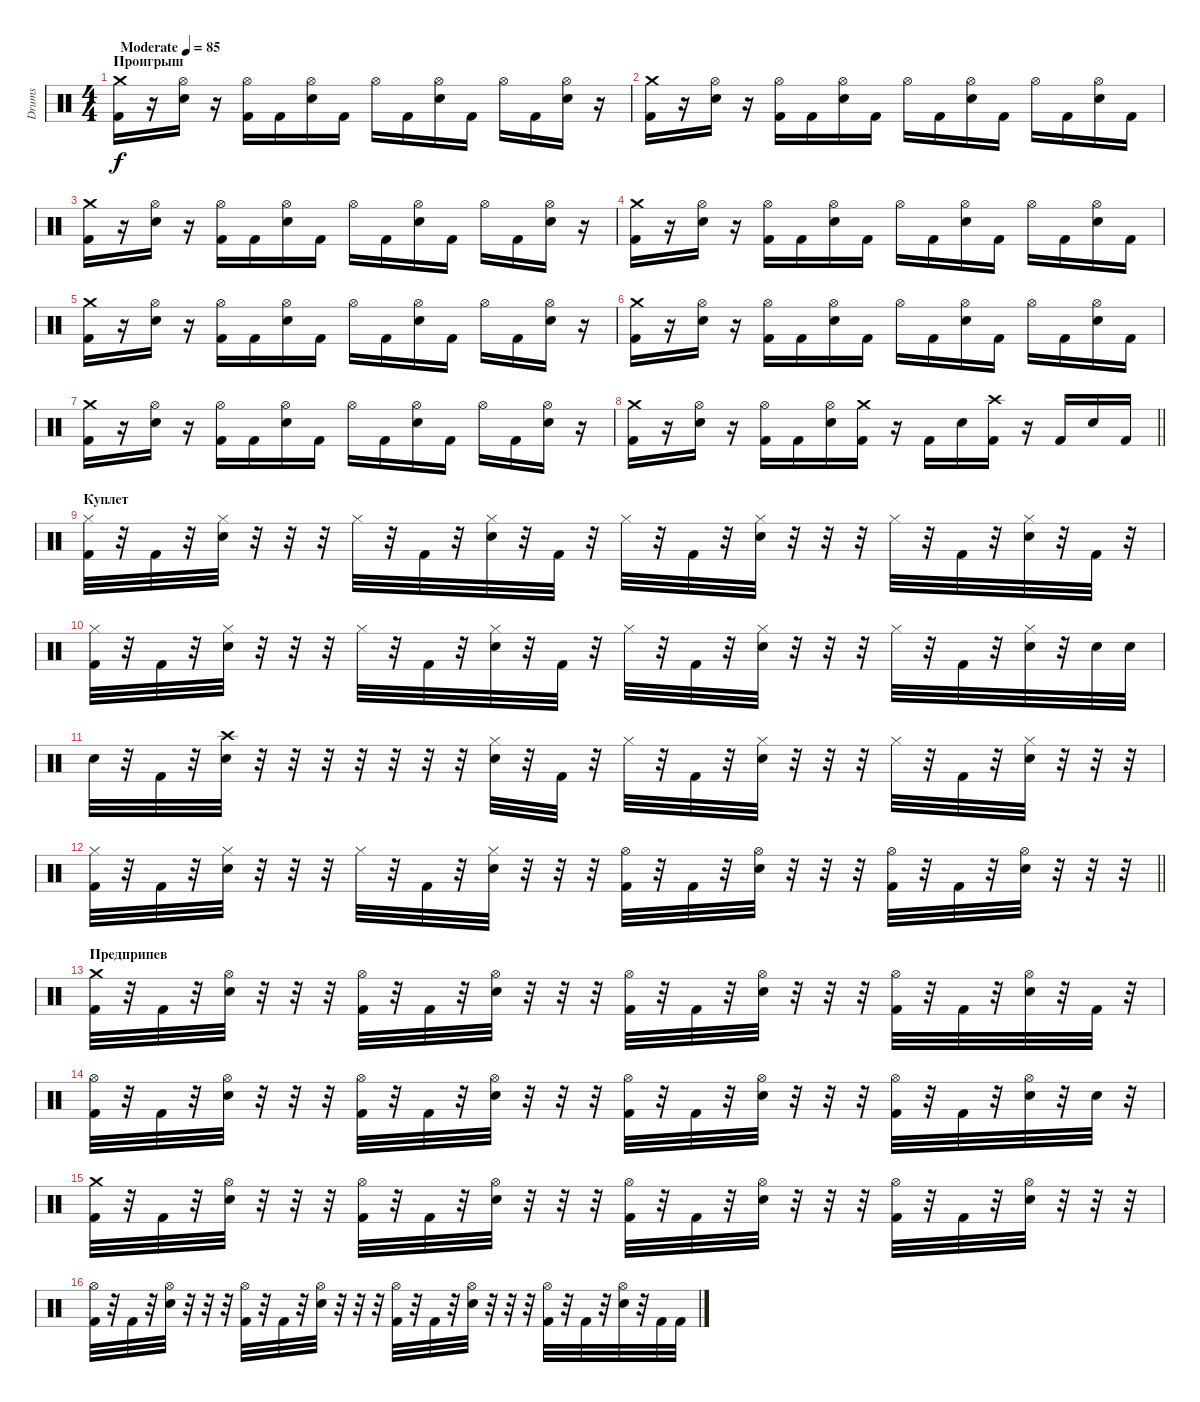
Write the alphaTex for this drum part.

\track ("Drums" "Drums") {instrument percussion}
\staff {score}
\articulation defaults
\ts (4 4)
\section ("" "Проигрыш")
\tempo (85 "Moderate")
\clef neutral
\ks c
("Crash medium (hit)" "Kick (hit) 2").16{dy f} r.16 ("Hi-Hat (open)" "Electric Snare (hit)").16 r.16 ("Hi-Hat (open)" "Kick (hit) 2").16 "Kick (hit) 2".16 ("Hi-Hat (open)" "Electric Snare (hit)").16 "Kick (hit) 2".16 "Hi-Hat (open)".16 "Kick (hit) 2".16 ("Hi-Hat (open)" "Electric Snare (hit)").16 "Kick (hit) 2".16 "Hi-Hat (open)".16 "Kick (hit) 2".16 ("Hi-Hat (open)" "Electric Snare (hit)").16 r.16 |
("Crash medium (hit)" "Kick (hit) 2").16 r.16 ("Hi-Hat (open)" "Electric Snare (hit)").16 r.16 ("Hi-Hat (open)" "Kick (hit) 2").16 "Kick (hit) 2".16 ("Hi-Hat (open)" "Electric Snare (hit)").16 "Kick (hit) 2".16 "Hi-Hat (open)".16 "Kick (hit) 2".16 ("Hi-Hat (open)" "Electric Snare (hit)").16 "Kick (hit) 2".16 "Hi-Hat (open)".16 "Kick (hit) 2".16 ("Hi-Hat (open)" "Electric Snare (hit)").16 "Kick (hit) 2".16 |
("Crash medium (hit)" "Kick (hit) 2").16 r.16 ("Hi-Hat (open)" "Electric Snare (hit)").16 r.16 ("Hi-Hat (open)" "Kick (hit) 2").16 "Kick (hit) 2".16 ("Hi-Hat (open)" "Electric Snare (hit)").16 "Kick (hit) 2".16 "Hi-Hat (open)".16 "Kick (hit) 2".16 ("Hi-Hat (open)" "Electric Snare (hit)").16 "Kick (hit) 2".16 "Hi-Hat (open)".16 "Kick (hit) 2".16 ("Hi-Hat (open)" "Electric Snare (hit)").16 r.16 |
("Crash medium (hit)" "Kick (hit) 2").16 r.16 ("Hi-Hat (open)" "Electric Snare (hit)").16 r.16 ("Hi-Hat (open)" "Kick (hit) 2").16 "Kick (hit) 2".16 ("Hi-Hat (open)" "Electric Snare (hit)").16 "Kick (hit) 2".16 "Hi-Hat (open)".16 "Kick (hit) 2".16 ("Hi-Hat (open)" "Electric Snare (hit)").16 "Kick (hit) 2".16 "Hi-Hat (open)".16 "Kick (hit) 2".16 ("Hi-Hat (open)" "Electric Snare (hit)").16 "Kick (hit) 2".16 |
("Crash medium (hit)" "Kick (hit) 2").16 r.16 ("Hi-Hat (open)" "Electric Snare (hit)").16 r.16 ("Hi-Hat (open)" "Kick (hit) 2").16 "Kick (hit) 2".16 ("Hi-Hat (open)" "Electric Snare (hit)").16 "Kick (hit) 2".16 "Hi-Hat (open)".16 "Kick (hit) 2".16 ("Hi-Hat (open)" "Electric Snare (hit)").16 "Kick (hit) 2".16 "Hi-Hat (open)".16 "Kick (hit) 2".16 ("Hi-Hat (open)" "Electric Snare (hit)").16 r.16 |
("Crash medium (hit)" "Kick (hit) 2").16 r.16 ("Hi-Hat (open)" "Electric Snare (hit)").16 r.16 ("Hi-Hat (open)" "Kick (hit) 2").16 "Kick (hit) 2".16 ("Hi-Hat (open)" "Electric Snare (hit)").16 "Kick (hit) 2".16 "Hi-Hat (open)".16 "Kick (hit) 2".16 ("Hi-Hat (open)" "Electric Snare (hit)").16 "Kick (hit) 2".16 "Hi-Hat (open)".16 "Kick (hit) 2".16 ("Hi-Hat (open)" "Electric Snare (hit)").16 "Kick (hit) 2".16 |
("Crash medium (hit)" "Kick (hit) 2").16 r.16 ("Hi-Hat (open)" "Electric Snare (hit)").16 r.16 ("Hi-Hat (open)" "Kick (hit) 2").16 "Kick (hit) 2".16 ("Hi-Hat (open)" "Electric Snare (hit)").16 "Kick (hit) 2".16 "Hi-Hat (open)".16 "Kick (hit) 2".16 ("Hi-Hat (open)" "Electric Snare (hit)").16 "Kick (hit) 2".16 "Hi-Hat (open)".16 "Kick (hit) 2".16 ("Hi-Hat (open)" "Electric Snare (hit)").16 r.16 |
\barLineRight lightlight
("Crash medium (hit)" "Kick (hit) 2").16 r.16 ("Hi-Hat (open)" "Electric Snare (hit)").16 r.16 ("Hi-Hat (open)" "Kick (hit) 2").16 "Kick (hit) 2".16 ("Hi-Hat (open)" "Electric Snare (hit)").16 ("Crash medium (hit)" "Kick (hit) 2").16 r.16 "Kick (hit) 2".16 "Electric Snare (hit)".16 ("Crash high (hit)" "Kick (hit) 2").16 r.16 "Kick (hit) 2".16 "Electric Snare (hit)".16 "Kick (hit) 2".16 |
\section ("" "Куплет")
("Hi-Hat (closed)" "Kick (hit) 2").32 r.32 "Kick (hit) 2".32 r.32 ("Hi-Hat (closed)" "Electric Snare (hit)").32 r.32 r.32 r.32 "Hi-Hat (closed)".32 r.32 "Kick (hit) 2".32 r.32 ("Hi-Hat (closed)" "Electric Snare (hit)").32 r.32 "Kick (hit) 2".32 r.32 "Hi-Hat (closed)".32 r.32 "Kick (hit) 2".32 r.32 ("Hi-Hat (closed)" "Electric Snare (hit)").32 r.32 r.32 r.32 "Hi-Hat (closed)".32 r.32 "Kick (hit) 2".32 r.32 ("Hi-Hat (closed)" "Electric Snare (hit)").32 r.32 "Kick (hit) 2".32 r.32 |
("Hi-Hat (closed)" "Kick (hit) 2").32 r.32 "Kick (hit) 2".32 r.32 ("Hi-Hat (closed)" "Electric Snare (hit)").32 r.32 r.32 r.32 "Hi-Hat (closed)".32 r.32 "Kick (hit) 2".32 r.32 ("Hi-Hat (closed)" "Electric Snare (hit)").32 r.32 "Kick (hit) 2".32 r.32 "Hi-Hat (closed)".32 r.32 "Kick (hit) 2".32 r.32 ("Hi-Hat (closed)" "Electric Snare (hit)").32 r.32 r.32 r.32 "Hi-Hat (closed)".32 r.32 "Kick (hit) 2".32 r.32 ("Hi-Hat (closed)" "Electric Snare (hit)").32 r.32 "Electric Snare (hit)".32 "Electric Snare (hit)".32 |
"Electric Snare (hit)".32 r.32 "Kick (hit) 2".32 r.32 ("Crash high (hit)" "Electric Snare (hit)").32 r.32 r.32 r.32 r.32 r.32 r.32 r.32 ("Hi-Hat (closed)" "Electric Snare (hit)").32 r.32 "Kick (hit) 2".32 r.32 "Hi-Hat (closed)".32 r.32 "Kick (hit) 2".32 r.32 ("Hi-Hat (closed)" "Electric Snare (hit)").32 r.32 r.32 r.32 "Hi-Hat (closed)".32 r.32 "Kick (hit) 2".32 r.32 ("Hi-Hat (closed)" "Electric Snare (hit)").32 r.32 r.32 r.32 |
\barLineRight lightlight
("Hi-Hat (closed)" "Kick (hit) 2").32 r.32 "Kick (hit) 2".32 r.32 ("Hi-Hat (closed)" "Electric Snare (hit)").32 r.32 r.32 r.32 "Hi-Hat (closed)".32 r.32 "Kick (hit) 2".32 r.32 ("Hi-Hat (closed)" "Electric Snare (hit)").32 r.32 r.32 r.32 ("Hi-Hat (open)" "Kick (hit) 2").32 r.32 "Kick (hit) 2".32 r.32 ("Hi-Hat (open)" "Electric Snare (hit)").32 r.32 r.32 r.32 ("Hi-Hat (open)" "Kick (hit) 2").32 r.32 "Kick (hit) 2".32 r.32 ("Hi-Hat (open)" "Electric Snare (hit)").32 r.32 r.32 r.32 |
\section ("" "Предприпев")
("Crash medium (hit)" "Kick (hit) 2").32 r.32 "Kick (hit) 2".32 r.32 ("Hi-Hat (open)" "Electric Snare (hit)").32 r.32 r.32 r.32 ("Hi-Hat (open)" "Kick (hit) 2").32 r.32 "Kick (hit) 2".32 r.32 ("Hi-Hat (open)" "Electric Snare (hit)").32 r.32 r.32 r.32 ("Hi-Hat (open)" "Kick (hit) 2").32 r.32 "Kick (hit) 2".32 r.32 ("Hi-Hat (open)" "Electric Snare (hit)").32 r.32 r.32 r.32 ("Hi-Hat (open)" "Kick (hit) 2").32 r.32 "Kick (hit) 2".32 r.32 ("Hi-Hat (open)" "Electric Snare (hit)").32 r.32 "Kick (hit) 2".32 r.32 |
("Hi-Hat (open)" "Kick (hit) 2").32 r.32 "Kick (hit) 2".32 r.32 ("Hi-Hat (open)" "Electric Snare (hit)").32 r.32 r.32 r.32 ("Hi-Hat (open)" "Kick (hit) 2").32 r.32 "Kick (hit) 2".32 r.32 ("Hi-Hat (open)" "Electric Snare (hit)").32 r.32 r.32 r.32 ("Hi-Hat (open)" "Kick (hit) 2").32 r.32 "Kick (hit) 2".32 r.32 ("Hi-Hat (open)" "Electric Snare (hit)").32 r.32 r.32 r.32 ("Hi-Hat (open)" "Kick (hit) 2").32 r.32 "Kick (hit) 2".32 r.32 ("Hi-Hat (open)" "Electric Snare (hit)").32 r.32 "Electric Snare (hit)".32 r.32 |
("Crash medium (hit)" "Kick (hit) 2").32 r.32 "Kick (hit) 2".32 r.32 ("Hi-Hat (open)" "Electric Snare (hit)").32 r.32 r.32 r.32 ("Hi-Hat (open)" "Kick (hit) 2").32 r.32 "Kick (hit) 2".32 r.32 ("Hi-Hat (open)" "Electric Snare (hit)").32 r.32 r.32 r.32 ("Hi-Hat (open)" "Kick (hit) 2").32 r.32 "Kick (hit) 2".32 r.32 ("Hi-Hat (open)" "Electric Snare (hit)").32 r.32 r.32 r.32 ("Hi-Hat (open)" "Kick (hit) 2").32 r.32 "Kick (hit) 2".32 r.32 ("Hi-Hat (open)" "Electric Snare (hit)").32 r.32 r.32 r.32 |
("Hi-Hat (open)" "Kick (hit) 2").32 r.32 "Kick (hit) 2".32 r.32 ("Hi-Hat (open)" "Electric Snare (hit)").32 r.32 r.32 r.32 ("Hi-Hat (open)" "Kick (hit) 2").32 r.32 "Kick (hit) 2".32 r.32 ("Hi-Hat (open)" "Electric Snare (hit)").32 r.32 r.32 r.32 ("Hi-Hat (open)" "Kick (hit) 2").32 r.32 "Kick (hit) 2".32 r.32 ("Hi-Hat (open)" "Electric Snare (hit)").32 r.32 r.32 r.32 ("Hi-Hat (open)" "Kick (hit) 2").32 r.32 "Kick (hit) 2".32 r.32 ("Hi-Hat (open)" "Electric Snare (hit)").32 r.32 "Kick (hit) 2".32 "Kick (hit) 2".32
